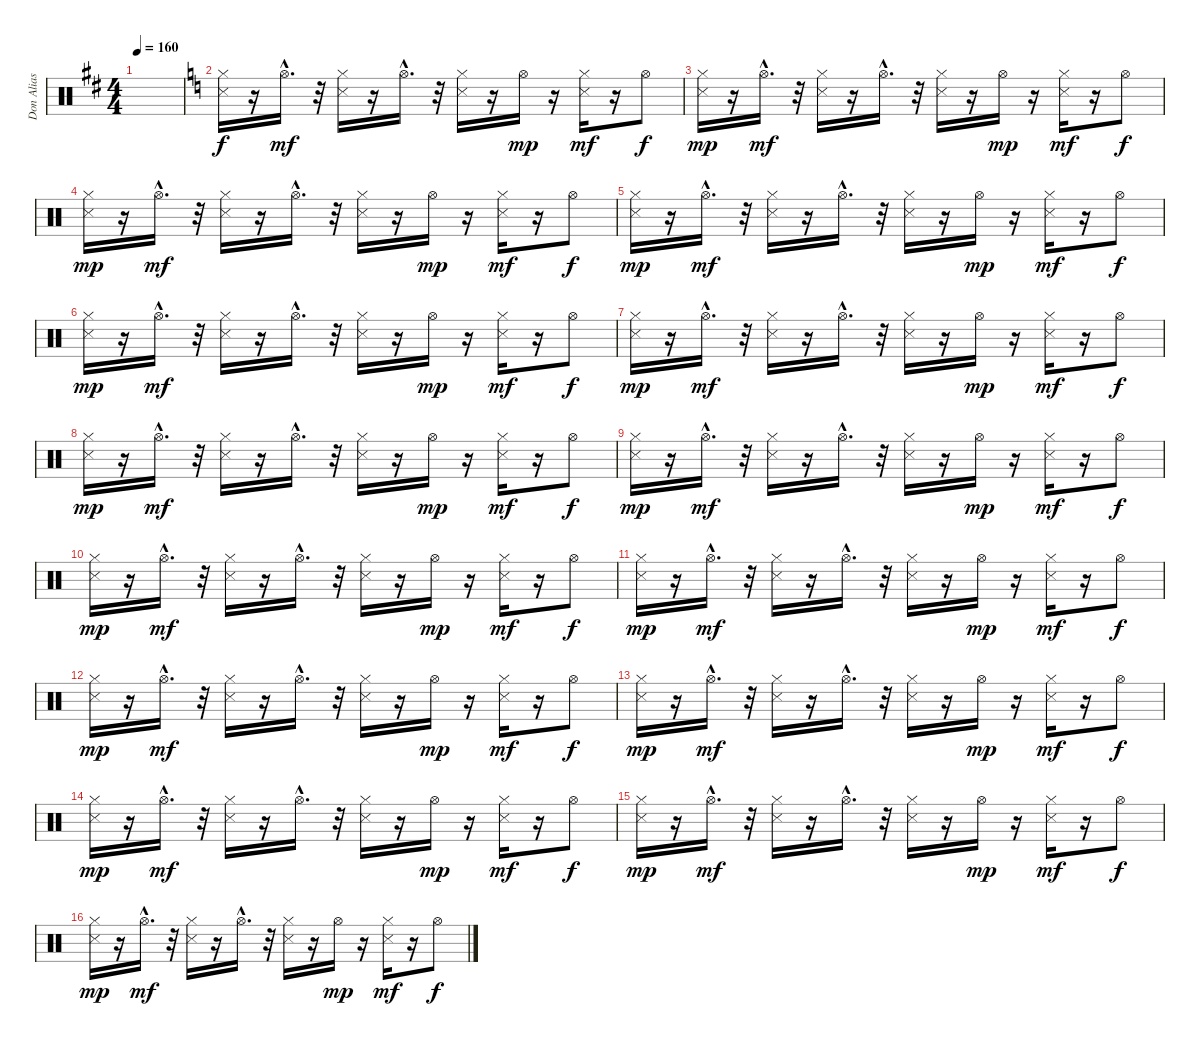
\track ("Don Alias" "Don Alias") {instrument percussion}
\staff {score}
\articulation defaults
\ts (4 4)
\tempo 160
\clef neutral
\ks d
|
\ks c
("Snare (side stick) 3" "Hi-Hat (closed)").16 r.16 "Hi-Hat (open)"{hac}.16{d dy mf} r.32 ("Snare (side stick) 3" "Hi-Hat (closed)").16 r.16 "Hi-Hat (open)"{hac}.16{d} r.32 ("Snare (side stick) 3" "Hi-Hat (closed)").16 r.16 "Hi-Hat (open)".16{dy mp} r.16 ("Snare (side stick) 3" "Hi-Hat (closed)").16{dy mf} r.16 "Hi-Hat (open)".8{dy f} |
("Snare (side stick) 3" "Hi-Hat (closed)").16{dy mp} r.16 "Hi-Hat (open)"{hac}.16{d dy mf} r.32 ("Snare (side stick) 3" "Hi-Hat (closed)").16 r.16 "Hi-Hat (open)"{hac}.16{d} r.32 ("Snare (side stick) 3" "Hi-Hat (closed)").16 r.16 "Hi-Hat (open)".16{dy mp} r.16 ("Snare (side stick) 3" "Hi-Hat (closed)").16{dy mf} r.16 "Hi-Hat (open)".8{dy f} |
("Snare (side stick) 3" "Hi-Hat (closed)").16{dy mp} r.16 "Hi-Hat (open)"{hac}.16{d dy mf} r.32 ("Snare (side stick) 3" "Hi-Hat (closed)").16 r.16 "Hi-Hat (open)"{hac}.16{d} r.32 ("Snare (side stick) 3" "Hi-Hat (closed)").16 r.16 "Hi-Hat (open)".16{dy mp} r.16 ("Snare (side stick) 3" "Hi-Hat (closed)").16{dy mf} r.16 "Hi-Hat (open)".8{dy f} |
("Snare (side stick) 3" "Hi-Hat (closed)").16{dy mp} r.16 "Hi-Hat (open)"{hac}.16{d dy mf} r.32 ("Snare (side stick) 3" "Hi-Hat (closed)").16 r.16 "Hi-Hat (open)"{hac}.16{d} r.32 ("Snare (side stick) 3" "Hi-Hat (closed)").16 r.16 "Hi-Hat (open)".16{dy mp} r.16 ("Snare (side stick) 3" "Hi-Hat (closed)").16{dy mf} r.16 "Hi-Hat (open)".8{dy f} |
("Snare (side stick) 3" "Hi-Hat (closed)").16{dy mp} r.16 "Hi-Hat (open)"{hac}.16{d dy mf} r.32 ("Snare (side stick) 3" "Hi-Hat (closed)").16 r.16 "Hi-Hat (open)"{hac}.16{d} r.32 ("Snare (side stick) 3" "Hi-Hat (closed)").16 r.16 "Hi-Hat (open)".16{dy mp} r.16 ("Snare (side stick) 3" "Hi-Hat (closed)").16{dy mf} r.16 "Hi-Hat (open)".8{dy f} |
("Snare (side stick) 3" "Hi-Hat (closed)").16{dy mp} r.16 "Hi-Hat (open)"{hac}.16{d dy mf} r.32 ("Snare (side stick) 3" "Hi-Hat (closed)").16 r.16 "Hi-Hat (open)"{hac}.16{d} r.32 ("Snare (side stick) 3" "Hi-Hat (closed)").16 r.16 "Hi-Hat (open)".16{dy mp} r.16 ("Snare (side stick) 3" "Hi-Hat (closed)").16{dy mf} r.16 "Hi-Hat (open)".8{dy f} |
("Snare (side stick) 3" "Hi-Hat (closed)").16{dy mp} r.16 "Hi-Hat (open)"{hac}.16{d dy mf} r.32 ("Snare (side stick) 3" "Hi-Hat (closed)").16 r.16 "Hi-Hat (open)"{hac}.16{d} r.32 ("Snare (side stick) 3" "Hi-Hat (closed)").16 r.16 "Hi-Hat (open)".16{dy mp} r.16 ("Snare (side stick) 3" "Hi-Hat (closed)").16{dy mf} r.16 "Hi-Hat (open)".8{dy f} |
("Snare (side stick) 3" "Hi-Hat (closed)").16{dy mp} r.16 "Hi-Hat (open)"{hac}.16{d dy mf} r.32 ("Snare (side stick) 3" "Hi-Hat (closed)").16 r.16 "Hi-Hat (open)"{hac}.16{d} r.32 ("Snare (side stick) 3" "Hi-Hat (closed)").16 r.16 "Hi-Hat (open)".16{dy mp} r.16 ("Snare (side stick) 3" "Hi-Hat (closed)").16{dy mf} r.16 "Hi-Hat (open)".8{dy f} |
("Snare (side stick) 3" "Hi-Hat (closed)").16{dy mp} r.16 "Hi-Hat (open)"{hac}.16{d dy mf} r.32 ("Snare (side stick) 3" "Hi-Hat (closed)").16 r.16 "Hi-Hat (open)"{hac}.16{d} r.32 ("Snare (side stick) 3" "Hi-Hat (closed)").16 r.16 "Hi-Hat (open)".16{dy mp} r.16 ("Snare (side stick) 3" "Hi-Hat (closed)").16{dy mf} r.16 "Hi-Hat (open)".8{dy f} |
("Snare (side stick) 3" "Hi-Hat (closed)").16{dy mp} r.16 "Hi-Hat (open)"{hac}.16{d dy mf} r.32 ("Snare (side stick) 3" "Hi-Hat (closed)").16 r.16 "Hi-Hat (open)"{hac}.16{d} r.32 ("Snare (side stick) 3" "Hi-Hat (closed)").16 r.16 "Hi-Hat (open)".16{dy mp} r.16 ("Snare (side stick) 3" "Hi-Hat (closed)").16{dy mf} r.16 "Hi-Hat (open)".8{dy f} |
("Snare (side stick) 3" "Hi-Hat (closed)").16{dy mp} r.16 "Hi-Hat (open)"{hac}.16{d dy mf} r.32 ("Snare (side stick) 3" "Hi-Hat (closed)").16 r.16 "Hi-Hat (open)"{hac}.16{d} r.32 ("Snare (side stick) 3" "Hi-Hat (closed)").16 r.16 "Hi-Hat (open)".16{dy mp} r.16 ("Snare (side stick) 3" "Hi-Hat (closed)").16{dy mf} r.16 "Hi-Hat (open)".8{dy f} |
("Snare (side stick) 3" "Hi-Hat (closed)").16{dy mp} r.16 "Hi-Hat (open)"{hac}.16{d dy mf} r.32 ("Snare (side stick) 3" "Hi-Hat (closed)").16 r.16 "Hi-Hat (open)"{hac}.16{d} r.32 ("Snare (side stick) 3" "Hi-Hat (closed)").16 r.16 "Hi-Hat (open)".16{dy mp} r.16 ("Snare (side stick) 3" "Hi-Hat (closed)").16{dy mf} r.16 "Hi-Hat (open)".8{dy f} |
("Snare (side stick) 3" "Hi-Hat (closed)").16{dy mp} r.16 "Hi-Hat (open)"{hac}.16{d dy mf} r.32 ("Snare (side stick) 3" "Hi-Hat (closed)").16 r.16 "Hi-Hat (open)"{hac}.16{d} r.32 ("Snare (side stick) 3" "Hi-Hat (closed)").16 r.16 "Hi-Hat (open)".16{dy mp} r.16 ("Snare (side stick) 3" "Hi-Hat (closed)").16{dy mf} r.16 "Hi-Hat (open)".8{dy f} |
("Snare (side stick) 3" "Hi-Hat (closed)").16{dy mp} r.16 "Hi-Hat (open)"{hac}.16{d dy mf} r.32 ("Snare (side stick) 3" "Hi-Hat (closed)").16 r.16 "Hi-Hat (open)"{hac}.16{d} r.32 ("Snare (side stick) 3" "Hi-Hat (closed)").16 r.16 "Hi-Hat (open)".16{dy mp} r.16 ("Snare (side stick) 3" "Hi-Hat (closed)").16{dy mf} r.16 "Hi-Hat (open)".8{dy f} |
("Snare (side stick) 3" "Hi-Hat (closed)").16{dy mp} r.16 "Hi-Hat (open)"{hac}.16{d dy mf} r.32 ("Snare (side stick) 3" "Hi-Hat (closed)").16 r.16 "Hi-Hat (open)"{hac}.16{d} r.32 ("Snare (side stick) 3" "Hi-Hat (closed)").16 r.16 "Hi-Hat (open)".16{dy mp} r.16 ("Snare (side stick) 3" "Hi-Hat (closed)").16{dy mf} r.16 "Hi-Hat (open)".8{dy f}
